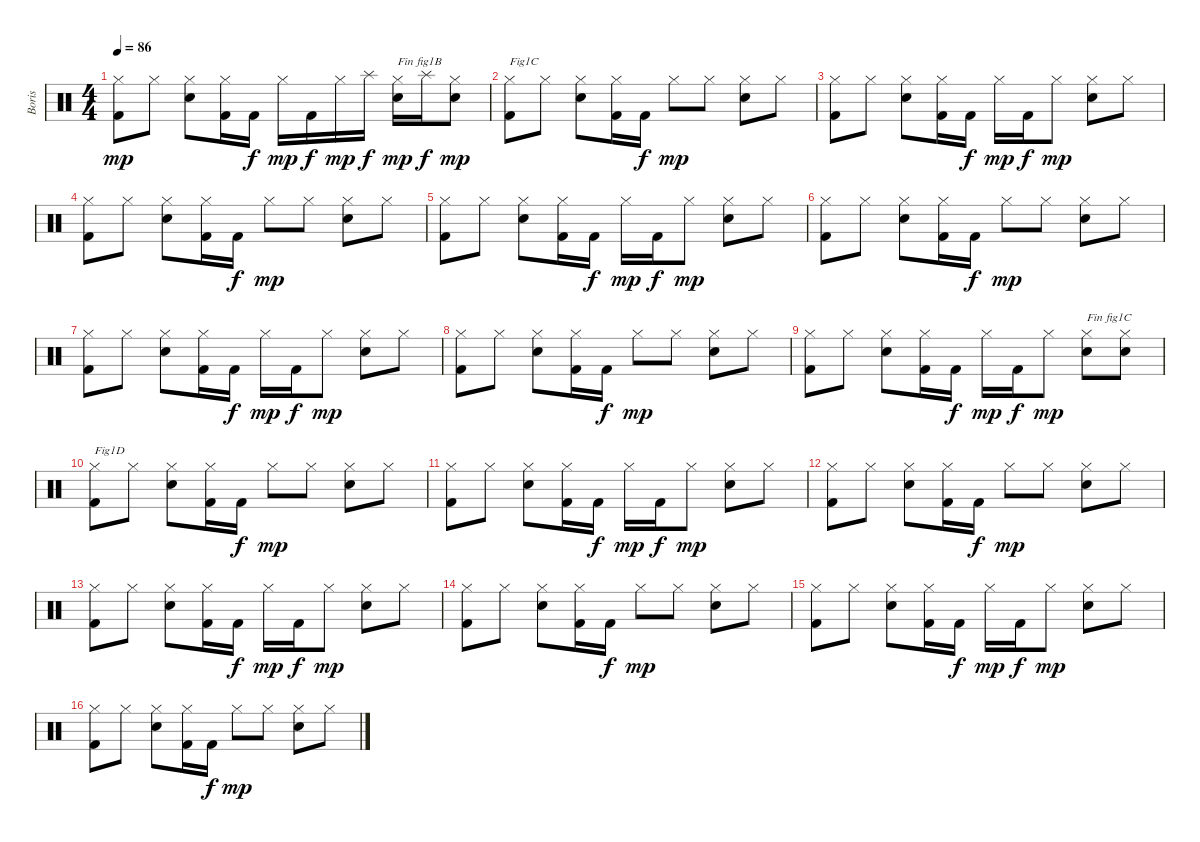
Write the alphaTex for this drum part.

\track ("Boris" "Boris") {instrument percussion}
\staff {score}
\articulation defaults
\ts (4 4)
\tempo 86
\clef neutral
\ks c
("Kick (hit) 2" "Hi-Hat (closed)").8{dy mp} "Hi-Hat (closed)".8 ("Electric Snare (hit)" "Hi-Hat (closed)").8 ("Kick (hit) 2" "Hi-Hat (closed)").16 "Kick (hit) 2".16{dy f} "Hi-Hat (closed)".16{dy mp} "Kick (hit) 2".16{dy f} "Hi-Hat (closed)".16{dy mp} "Splash (hit)".16{dy f} ("Electric Snare (hit)" "Hi-Hat (closed)").16{txt "Fin fig1B" dy mp} "Splash (hit)".16{dy f} ("Electric Snare (hit)" "Hi-Hat (closed)").8{dy mp} |
("Kick (hit) 2" "Hi-Hat (closed)").8{txt "Fig1C"} "Hi-Hat (closed)".8 ("Electric Snare (hit)" "Hi-Hat (closed)").8 ("Kick (hit) 2" "Hi-Hat (closed)").16 "Kick (hit) 2".16{dy f} "Hi-Hat (closed)".8{dy mp} "Hi-Hat (closed)".8 ("Electric Snare (hit)" "Hi-Hat (closed)").8 "Hi-Hat (closed)".8 |
("Kick (hit) 2" "Hi-Hat (closed)").8 "Hi-Hat (closed)".8 ("Electric Snare (hit)" "Hi-Hat (closed)").8 ("Kick (hit) 2" "Hi-Hat (closed)").16 "Kick (hit) 2".16{dy f} "Hi-Hat (closed)".16{dy mp} "Kick (hit) 2".16{dy f} "Hi-Hat (closed)".8{dy mp} ("Electric Snare (hit)" "Hi-Hat (closed)").8 "Hi-Hat (closed)".8 |
("Kick (hit) 2" "Hi-Hat (closed)").8 "Hi-Hat (closed)".8 ("Electric Snare (hit)" "Hi-Hat (closed)").8 ("Kick (hit) 2" "Hi-Hat (closed)").16 "Kick (hit) 2".16{dy f} "Hi-Hat (closed)".8{dy mp} "Hi-Hat (closed)".8 ("Electric Snare (hit)" "Hi-Hat (closed)").8 "Hi-Hat (closed)".8 |
("Kick (hit) 2" "Hi-Hat (closed)").8 "Hi-Hat (closed)".8 ("Electric Snare (hit)" "Hi-Hat (closed)").8 ("Kick (hit) 2" "Hi-Hat (closed)").16 "Kick (hit) 2".16{dy f} "Hi-Hat (closed)".16{dy mp} "Kick (hit) 2".16{dy f} "Hi-Hat (closed)".8{dy mp} ("Electric Snare (hit)" "Hi-Hat (closed)").8 "Hi-Hat (closed)".8 |
("Kick (hit) 2" "Hi-Hat (closed)").8 "Hi-Hat (closed)".8 ("Electric Snare (hit)" "Hi-Hat (closed)").8 ("Kick (hit) 2" "Hi-Hat (closed)").16 "Kick (hit) 2".16{dy f} "Hi-Hat (closed)".8{dy mp} "Hi-Hat (closed)".8 ("Electric Snare (hit)" "Hi-Hat (closed)").8 "Hi-Hat (closed)".8 |
("Kick (hit) 2" "Hi-Hat (closed)").8 "Hi-Hat (closed)".8 ("Electric Snare (hit)" "Hi-Hat (closed)").8 ("Kick (hit) 2" "Hi-Hat (closed)").16 "Kick (hit) 2".16{dy f} "Hi-Hat (closed)".16{dy mp} "Kick (hit) 2".16{dy f} "Hi-Hat (closed)".8{dy mp} ("Electric Snare (hit)" "Hi-Hat (closed)").8 "Hi-Hat (closed)".8 |
("Kick (hit) 2" "Hi-Hat (closed)").8 "Hi-Hat (closed)".8 ("Electric Snare (hit)" "Hi-Hat (closed)").8 ("Kick (hit) 2" "Hi-Hat (closed)").16 "Kick (hit) 2".16{dy f} "Hi-Hat (closed)".8{dy mp} "Hi-Hat (closed)".8 ("Electric Snare (hit)" "Hi-Hat (closed)").8 "Hi-Hat (closed)".8 |
("Kick (hit) 2" "Hi-Hat (closed)").8 "Hi-Hat (closed)".8 ("Electric Snare (hit)" "Hi-Hat (closed)").8 ("Kick (hit) 2" "Hi-Hat (closed)").16 "Kick (hit) 2".16{dy f} "Hi-Hat (closed)".16{dy mp} "Kick (hit) 2".16{dy f} "Hi-Hat (closed)".8{dy mp} ("Electric Snare (hit)" "Hi-Hat (closed)").8{txt "Fin fig1C"} ("Electric Snare (hit)" "Hi-Hat (closed)").8 |
("Kick (hit) 2" "Hi-Hat (closed)").8{txt "Fig1D"} "Hi-Hat (closed)".8 ("Electric Snare (hit)" "Hi-Hat (closed)").8 ("Kick (hit) 2" "Hi-Hat (closed)").16 "Kick (hit) 2".16{dy f} "Hi-Hat (closed)".8{dy mp} "Hi-Hat (closed)".8 ("Electric Snare (hit)" "Hi-Hat (closed)").8 "Hi-Hat (closed)".8 |
("Kick (hit) 2" "Hi-Hat (closed)").8 "Hi-Hat (closed)".8 ("Electric Snare (hit)" "Hi-Hat (closed)").8 ("Kick (hit) 2" "Hi-Hat (closed)").16 "Kick (hit) 2".16{dy f} "Hi-Hat (closed)".16{dy mp} "Kick (hit) 2".16{dy f} "Hi-Hat (closed)".8{dy mp} ("Electric Snare (hit)" "Hi-Hat (closed)").8 "Hi-Hat (closed)".8 |
("Kick (hit) 2" "Hi-Hat (closed)").8 "Hi-Hat (closed)".8 ("Electric Snare (hit)" "Hi-Hat (closed)").8 ("Kick (hit) 2" "Hi-Hat (closed)").16 "Kick (hit) 2".16{dy f} "Hi-Hat (closed)".8{dy mp} "Hi-Hat (closed)".8 ("Electric Snare (hit)" "Hi-Hat (closed)").8 "Hi-Hat (closed)".8 |
("Kick (hit) 2" "Hi-Hat (closed)").8 "Hi-Hat (closed)".8 ("Electric Snare (hit)" "Hi-Hat (closed)").8 ("Kick (hit) 2" "Hi-Hat (closed)").16 "Kick (hit) 2".16{dy f} "Hi-Hat (closed)".16{dy mp} "Kick (hit) 2".16{dy f} "Hi-Hat (closed)".8{dy mp} ("Electric Snare (hit)" "Hi-Hat (closed)").8 "Hi-Hat (closed)".8 |
("Kick (hit) 2" "Hi-Hat (closed)").8 "Hi-Hat (closed)".8 ("Electric Snare (hit)" "Hi-Hat (closed)").8 ("Kick (hit) 2" "Hi-Hat (closed)").16 "Kick (hit) 2".16{dy f} "Hi-Hat (closed)".8{dy mp} "Hi-Hat (closed)".8 ("Electric Snare (hit)" "Hi-Hat (closed)").8 "Hi-Hat (closed)".8 |
("Kick (hit) 2" "Hi-Hat (closed)").8 "Hi-Hat (closed)".8 ("Electric Snare (hit)" "Hi-Hat (closed)").8 ("Kick (hit) 2" "Hi-Hat (closed)").16 "Kick (hit) 2".16{dy f} "Hi-Hat (closed)".16{dy mp} "Kick (hit) 2".16{dy f} "Hi-Hat (closed)".8{dy mp} ("Electric Snare (hit)" "Hi-Hat (closed)").8 "Hi-Hat (closed)".8 |
("Kick (hit) 2" "Hi-Hat (closed)").8 "Hi-Hat (closed)".8 ("Electric Snare (hit)" "Hi-Hat (closed)").8 ("Kick (hit) 2" "Hi-Hat (closed)").16 "Kick (hit) 2".16{dy f} "Hi-Hat (closed)".8{dy mp} "Hi-Hat (closed)".8 ("Electric Snare (hit)" "Hi-Hat (closed)").8 "Hi-Hat (closed)".8
